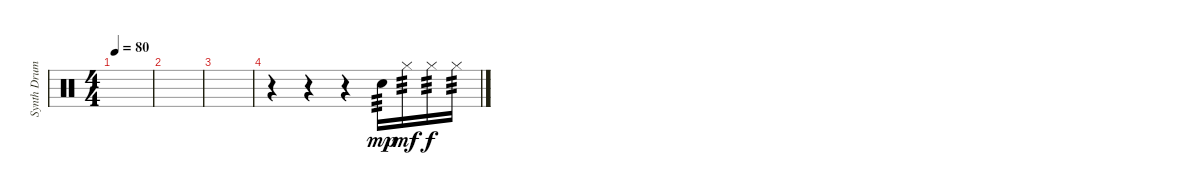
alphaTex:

\track ("Synth Drums" "Synth Drum") {instrument percussion}
\staff
\articulation defaults
\ts (4 4)
\tempo 80
\clef neutral
\ks c
|
|
|
r.4 r.4 r.4 "Snare (hit)".16{tp 3 dy mp} "Hi-Hat (closed)".16{tp 3 dy mf} "Hi-Hat (closed)".16{tp 3 dy f} "Hi-Hat (closed)".16{tp 3}
